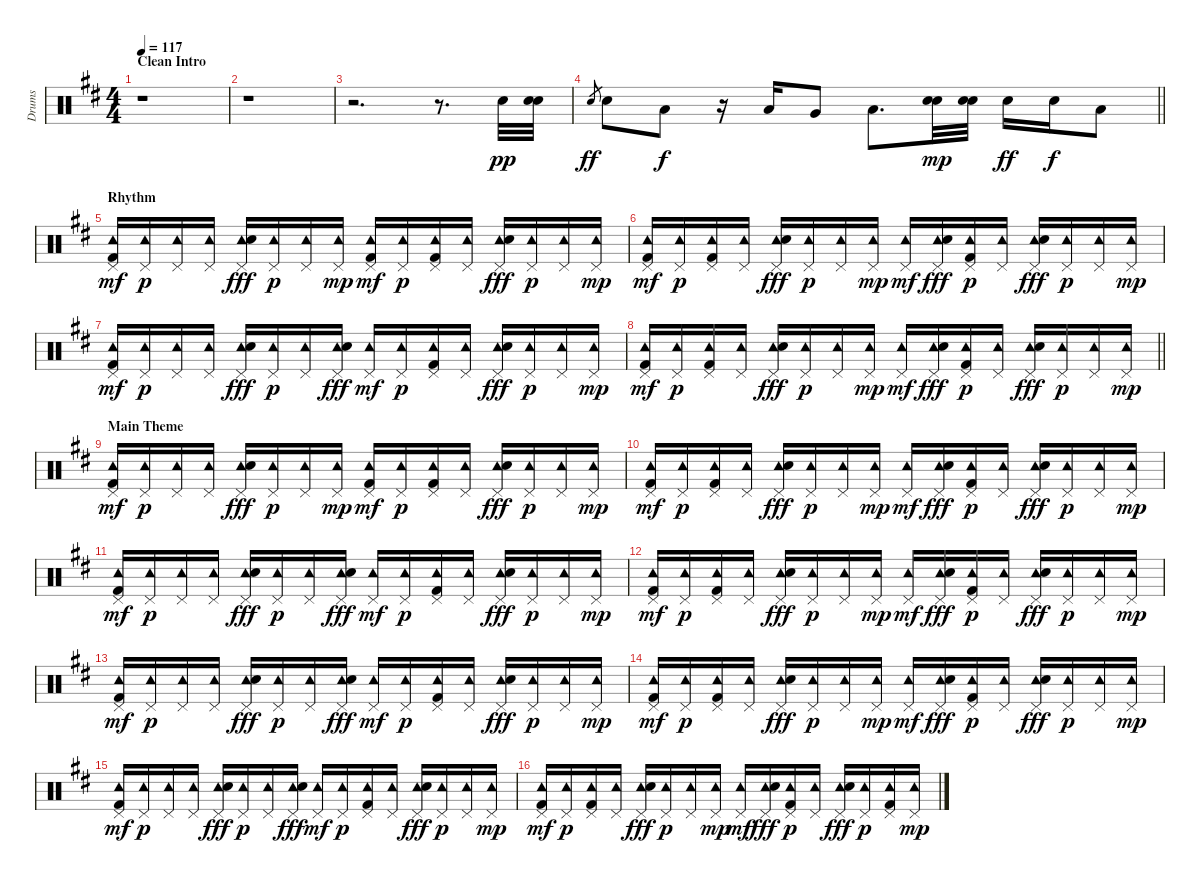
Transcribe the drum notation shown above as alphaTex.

\track ("Drums" "Drums") {instrument percussion}
\staff {score}
\articulation defaults
\ts (4 4)
\section ("" "Clean Intro")
\tempo 117
\clef neutral
\ks d
r.1{dy pp} |
r.1 |
r.2{d} r.8{d} "Snare (hit) 2".32 ("Snare (hit) 2" "Electric Snare (hit)").32 |
\barLineRight lightlight "Electric Snare (hit)".8{gr dy ff} "Electric Snare (hit)".8 "Low Tom (hit)".8{dy f}
r.16 "Low Tom (hit)".16 "Very Low Tom (hit)".8 "Low Floor Tom (hit)".8{d} ("Snare (hit) 2" "Snare (hit) 2").32{dy mp} ("Electric Snare (hit)" "Electric Snare (hit)").32 "Electric Snare (hit)".16{dy ff} "Electric Snare (hit)".16{dy f} "Low Floor Tom (hit)".8 |
\section ("" "Rhythm")
("Pedal Hi-Hat (hit)" "Tambourine (hit)" "Kick (hit) 2").16{dy mf} ("Pedal Hi-Hat (hit)" "Tambourine (hit)").16{dy p} ("Pedal Hi-Hat (hit)" "Tambourine (hit)").16 ("Pedal Hi-Hat (hit)" "Tambourine (hit)").16 ("Pedal Hi-Hat (hit)" "Tambourine (hit)" "Electric Snare (hit)").16{dy fff} ("Pedal Hi-Hat (hit)" "Tambourine (hit)").16{dy p} ("Pedal Hi-Hat (hit)" "Tambourine (hit)").16 ("Pedal Hi-Hat (hit)" "Tambourine (hit)").16{dy mp} ("Pedal Hi-Hat (hit)" "Tambourine (hit)" "Kick (hit) 2").16{dy mf} ("Pedal Hi-Hat (hit)" "Tambourine (hit)").16{dy p} ("Pedal Hi-Hat (hit)" "Tambourine (hit)" "Kick (hit) 2").16 ("Pedal Hi-Hat (hit)" "Tambourine (hit)").16 ("Pedal Hi-Hat (hit)" "Tambourine (hit)" "Electric Snare (hit)").16{dy fff} ("Pedal Hi-Hat (hit)" "Tambourine (hit)").16{dy p} ("Pedal Hi-Hat (hit)" "Tambourine (hit)").16 ("Pedal Hi-Hat (hit)" "Tambourine (hit)").16{dy mp} |
("Pedal Hi-Hat (hit)" "Tambourine (hit)" "Kick (hit) 2").16{dy mf} ("Pedal Hi-Hat (hit)" "Tambourine (hit)").16{dy p} ("Pedal Hi-Hat (hit)" "Tambourine (hit)" "Kick (hit) 2").16 ("Pedal Hi-Hat (hit)" "Tambourine (hit)").16 ("Pedal Hi-Hat (hit)" "Tambourine (hit)" "Electric Snare (hit)").16{dy fff} ("Pedal Hi-Hat (hit)" "Tambourine (hit)").16{dy p} ("Pedal Hi-Hat (hit)" "Tambourine (hit)").16 ("Pedal Hi-Hat (hit)" "Tambourine (hit)").16{dy mp} ("Pedal Hi-Hat (hit)" "Tambourine (hit)").16{dy mf} ("Pedal Hi-Hat (hit)" "Tambourine (hit)" "Electric Snare (hit)").16{dy fff} ("Pedal Hi-Hat (hit)" "Tambourine (hit)" "Kick (hit) 2").16{dy p} ("Pedal Hi-Hat (hit)" "Tambourine (hit)").16 ("Pedal Hi-Hat (hit)" "Tambourine (hit)" "Electric Snare (hit)").16{dy fff} ("Pedal Hi-Hat (hit)" "Tambourine (hit)").16{dy p} ("Pedal Hi-Hat (hit)" "Tambourine (hit)").16 ("Pedal Hi-Hat (hit)" "Tambourine (hit)").16{dy mp} |
("Pedal Hi-Hat (hit)" "Tambourine (hit)" "Kick (hit) 2").16{dy mf} ("Pedal Hi-Hat (hit)" "Tambourine (hit)").16{dy p} ("Pedal Hi-Hat (hit)" "Tambourine (hit)").16 ("Pedal Hi-Hat (hit)" "Tambourine (hit)").16 ("Pedal Hi-Hat (hit)" "Tambourine (hit)" "Electric Snare (hit)").16{dy fff} ("Pedal Hi-Hat (hit)" "Tambourine (hit)").16{dy p} ("Pedal Hi-Hat (hit)" "Tambourine (hit)").16 ("Pedal Hi-Hat (hit)" "Tambourine (hit)" "Electric Snare (hit)").16{dy fff} ("Pedal Hi-Hat (hit)" "Tambourine (hit)").16{dy mf} ("Pedal Hi-Hat (hit)" "Tambourine (hit)").16{dy p} ("Pedal Hi-Hat (hit)" "Tambourine (hit)" "Kick (hit) 2").16 ("Pedal Hi-Hat (hit)" "Tambourine (hit)").16 ("Pedal Hi-Hat (hit)" "Tambourine (hit)" "Electric Snare (hit)").16{dy fff} ("Pedal Hi-Hat (hit)" "Tambourine (hit)").16{dy p} ("Pedal Hi-Hat (hit)" "Tambourine (hit)").16 ("Pedal Hi-Hat (hit)" "Tambourine (hit)").16{dy mp} |
\barLineRight lightlight
("Pedal Hi-Hat (hit)" "Tambourine (hit)" "Kick (hit) 2").16{dy mf} ("Pedal Hi-Hat (hit)" "Tambourine (hit)").16{dy p} ("Pedal Hi-Hat (hit)" "Tambourine (hit)" "Kick (hit) 2").16 ("Pedal Hi-Hat (hit)" "Tambourine (hit)").16 ("Pedal Hi-Hat (hit)" "Tambourine (hit)" "Electric Snare (hit)").16{dy fff} ("Pedal Hi-Hat (hit)" "Tambourine (hit)").16{dy p} ("Pedal Hi-Hat (hit)" "Tambourine (hit)").16 ("Pedal Hi-Hat (hit)" "Tambourine (hit)").16{dy mp} ("Pedal Hi-Hat (hit)" "Tambourine (hit)").16{dy mf} ("Pedal Hi-Hat (hit)" "Tambourine (hit)" "Electric Snare (hit)").16{dy fff} ("Pedal Hi-Hat (hit)" "Tambourine (hit)" "Kick (hit) 2").16{dy p} ("Pedal Hi-Hat (hit)" "Tambourine (hit)").16 ("Pedal Hi-Hat (hit)" "Tambourine (hit)" "Electric Snare (hit)").16{dy fff} ("Pedal Hi-Hat (hit)" "Tambourine (hit)").16{dy p} ("Pedal Hi-Hat (hit)" "Tambourine (hit)").16 ("Pedal Hi-Hat (hit)" "Tambourine (hit)").16{dy mp} |
\section ("" "Main Theme")
("Pedal Hi-Hat (hit)" "Tambourine (hit)" "Kick (hit) 2").16{dy mf} ("Pedal Hi-Hat (hit)" "Tambourine (hit)").16{dy p} ("Pedal Hi-Hat (hit)" "Tambourine (hit)").16 ("Pedal Hi-Hat (hit)" "Tambourine (hit)").16 ("Pedal Hi-Hat (hit)" "Tambourine (hit)" "Electric Snare (hit)").16{dy fff} ("Pedal Hi-Hat (hit)" "Tambourine (hit)").16{dy p} ("Pedal Hi-Hat (hit)" "Tambourine (hit)").16 ("Pedal Hi-Hat (hit)" "Tambourine (hit)").16{dy mp} ("Pedal Hi-Hat (hit)" "Tambourine (hit)" "Kick (hit) 2").16{dy mf} ("Pedal Hi-Hat (hit)" "Tambourine (hit)").16{dy p} ("Pedal Hi-Hat (hit)" "Tambourine (hit)" "Kick (hit) 2").16 ("Pedal Hi-Hat (hit)" "Tambourine (hit)").16 ("Pedal Hi-Hat (hit)" "Tambourine (hit)" "Electric Snare (hit)").16{dy fff} ("Pedal Hi-Hat (hit)" "Tambourine (hit)").16{dy p} ("Pedal Hi-Hat (hit)" "Tambourine (hit)").16 ("Pedal Hi-Hat (hit)" "Tambourine (hit)").16{dy mp} |
("Pedal Hi-Hat (hit)" "Tambourine (hit)" "Kick (hit) 2").16{dy mf} ("Pedal Hi-Hat (hit)" "Tambourine (hit)").16{dy p} ("Pedal Hi-Hat (hit)" "Tambourine (hit)" "Kick (hit) 2").16 ("Pedal Hi-Hat (hit)" "Tambourine (hit)").16 ("Pedal Hi-Hat (hit)" "Tambourine (hit)" "Electric Snare (hit)").16{dy fff} ("Pedal Hi-Hat (hit)" "Tambourine (hit)").16{dy p} ("Pedal Hi-Hat (hit)" "Tambourine (hit)").16 ("Pedal Hi-Hat (hit)" "Tambourine (hit)").16{dy mp} ("Pedal Hi-Hat (hit)" "Tambourine (hit)").16{dy mf} ("Pedal Hi-Hat (hit)" "Tambourine (hit)" "Electric Snare (hit)").16{dy fff} ("Pedal Hi-Hat (hit)" "Tambourine (hit)" "Kick (hit) 2").16{dy p} ("Pedal Hi-Hat (hit)" "Tambourine (hit)").16 ("Pedal Hi-Hat (hit)" "Tambourine (hit)" "Electric Snare (hit)").16{dy fff} ("Pedal Hi-Hat (hit)" "Tambourine (hit)").16{dy p} ("Pedal Hi-Hat (hit)" "Tambourine (hit)").16 ("Pedal Hi-Hat (hit)" "Tambourine (hit)").16{dy mp} |
("Pedal Hi-Hat (hit)" "Tambourine (hit)" "Kick (hit) 2").16{dy mf} ("Pedal Hi-Hat (hit)" "Tambourine (hit)").16{dy p} ("Pedal Hi-Hat (hit)" "Tambourine (hit)").16 ("Pedal Hi-Hat (hit)" "Tambourine (hit)").16 ("Pedal Hi-Hat (hit)" "Tambourine (hit)" "Electric Snare (hit)").16{dy fff} ("Pedal Hi-Hat (hit)" "Tambourine (hit)").16{dy p} ("Pedal Hi-Hat (hit)" "Tambourine (hit)").16 ("Pedal Hi-Hat (hit)" "Tambourine (hit)" "Electric Snare (hit)").16{dy fff} ("Pedal Hi-Hat (hit)" "Tambourine (hit)").16{dy mf} ("Pedal Hi-Hat (hit)" "Tambourine (hit)").16{dy p} ("Pedal Hi-Hat (hit)" "Tambourine (hit)" "Kick (hit) 2").16 ("Pedal Hi-Hat (hit)" "Tambourine (hit)").16 ("Pedal Hi-Hat (hit)" "Tambourine (hit)" "Electric Snare (hit)").16{dy fff} ("Pedal Hi-Hat (hit)" "Tambourine (hit)").16{dy p} ("Pedal Hi-Hat (hit)" "Tambourine (hit)").16 ("Pedal Hi-Hat (hit)" "Tambourine (hit)").16{dy mp} |
("Pedal Hi-Hat (hit)" "Tambourine (hit)" "Kick (hit) 2").16{dy mf} ("Pedal Hi-Hat (hit)" "Tambourine (hit)").16{dy p} ("Pedal Hi-Hat (hit)" "Tambourine (hit)" "Kick (hit) 2").16 ("Pedal Hi-Hat (hit)" "Tambourine (hit)").16 ("Pedal Hi-Hat (hit)" "Tambourine (hit)" "Electric Snare (hit)").16{dy fff} ("Pedal Hi-Hat (hit)" "Tambourine (hit)").16{dy p} ("Pedal Hi-Hat (hit)" "Tambourine (hit)").16 ("Pedal Hi-Hat (hit)" "Tambourine (hit)").16{dy mp} ("Pedal Hi-Hat (hit)" "Tambourine (hit)").16{dy mf} ("Pedal Hi-Hat (hit)" "Tambourine (hit)" "Electric Snare (hit)").16{dy fff} ("Pedal Hi-Hat (hit)" "Tambourine (hit)" "Kick (hit) 2").16{dy p} ("Pedal Hi-Hat (hit)" "Tambourine (hit)").16 ("Pedal Hi-Hat (hit)" "Tambourine (hit)" "Electric Snare (hit)").16{dy fff} ("Pedal Hi-Hat (hit)" "Tambourine (hit)").16{dy p} ("Pedal Hi-Hat (hit)" "Tambourine (hit)").16 ("Pedal Hi-Hat (hit)" "Tambourine (hit)").16{dy mp} |
("Pedal Hi-Hat (hit)" "Tambourine (hit)" "Kick (hit) 2").16{dy mf} ("Pedal Hi-Hat (hit)" "Tambourine (hit)").16{dy p} ("Pedal Hi-Hat (hit)" "Tambourine (hit)").16 ("Pedal Hi-Hat (hit)" "Tambourine (hit)").16 ("Pedal Hi-Hat (hit)" "Tambourine (hit)" "Electric Snare (hit)").16{dy fff} ("Pedal Hi-Hat (hit)" "Tambourine (hit)").16{dy p} ("Pedal Hi-Hat (hit)" "Tambourine (hit)").16 ("Pedal Hi-Hat (hit)" "Tambourine (hit)" "Electric Snare (hit)").16{dy fff} ("Pedal Hi-Hat (hit)" "Tambourine (hit)").16{dy mf} ("Pedal Hi-Hat (hit)" "Tambourine (hit)").16{dy p} ("Pedal Hi-Hat (hit)" "Tambourine (hit)" "Kick (hit) 2").16 ("Pedal Hi-Hat (hit)" "Tambourine (hit)").16 ("Pedal Hi-Hat (hit)" "Tambourine (hit)" "Electric Snare (hit)").16{dy fff} ("Pedal Hi-Hat (hit)" "Tambourine (hit)").16{dy p} ("Pedal Hi-Hat (hit)" "Tambourine (hit)").16 ("Pedal Hi-Hat (hit)" "Tambourine (hit)").16{dy mp} |
("Pedal Hi-Hat (hit)" "Tambourine (hit)" "Kick (hit) 2").16{dy mf} ("Pedal Hi-Hat (hit)" "Tambourine (hit)").16{dy p} ("Pedal Hi-Hat (hit)" "Tambourine (hit)" "Kick (hit) 2").16 ("Pedal Hi-Hat (hit)" "Tambourine (hit)").16 ("Pedal Hi-Hat (hit)" "Tambourine (hit)" "Electric Snare (hit)").16{dy fff} ("Pedal Hi-Hat (hit)" "Tambourine (hit)").16{dy p} ("Pedal Hi-Hat (hit)" "Tambourine (hit)").16 ("Pedal Hi-Hat (hit)" "Tambourine (hit)").16{dy mp} ("Pedal Hi-Hat (hit)" "Tambourine (hit)").16{dy mf} ("Pedal Hi-Hat (hit)" "Tambourine (hit)" "Electric Snare (hit)").16{dy fff} ("Pedal Hi-Hat (hit)" "Tambourine (hit)" "Kick (hit) 2").16{dy p} ("Pedal Hi-Hat (hit)" "Tambourine (hit)").16 ("Pedal Hi-Hat (hit)" "Tambourine (hit)" "Electric Snare (hit)").16{dy fff} ("Pedal Hi-Hat (hit)" "Tambourine (hit)").16{dy p} ("Pedal Hi-Hat (hit)" "Tambourine (hit)").16 ("Pedal Hi-Hat (hit)" "Tambourine (hit)").16{dy mp} |
("Pedal Hi-Hat (hit)" "Tambourine (hit)" "Kick (hit) 2").16{dy mf} ("Pedal Hi-Hat (hit)" "Tambourine (hit)").16{dy p} ("Pedal Hi-Hat (hit)" "Tambourine (hit)").16 ("Pedal Hi-Hat (hit)" "Tambourine (hit)").16 ("Pedal Hi-Hat (hit)" "Tambourine (hit)" "Electric Snare (hit)").16{dy fff} ("Pedal Hi-Hat (hit)" "Tambourine (hit)").16{dy p} ("Pedal Hi-Hat (hit)" "Tambourine (hit)").16 ("Pedal Hi-Hat (hit)" "Tambourine (hit)" "Electric Snare (hit)").16{dy fff} ("Pedal Hi-Hat (hit)" "Tambourine (hit)").16{dy mf} ("Pedal Hi-Hat (hit)" "Tambourine (hit)").16{dy p} ("Pedal Hi-Hat (hit)" "Tambourine (hit)" "Kick (hit) 2").16 ("Pedal Hi-Hat (hit)" "Tambourine (hit)").16 ("Pedal Hi-Hat (hit)" "Tambourine (hit)" "Electric Snare (hit)").16{dy fff} ("Pedal Hi-Hat (hit)" "Tambourine (hit)").16{dy p} ("Pedal Hi-Hat (hit)" "Tambourine (hit)").16 ("Pedal Hi-Hat (hit)" "Tambourine (hit)").16{dy mp} |
("Pedal Hi-Hat (hit)" "Tambourine (hit)" "Kick (hit) 2").16{dy mf} ("Pedal Hi-Hat (hit)" "Tambourine (hit)").16{dy p} ("Pedal Hi-Hat (hit)" "Tambourine (hit)" "Kick (hit) 2").16 ("Pedal Hi-Hat (hit)" "Tambourine (hit)").16 ("Pedal Hi-Hat (hit)" "Tambourine (hit)" "Electric Snare (hit)").16{dy fff} ("Pedal Hi-Hat (hit)" "Tambourine (hit)").16{dy p} ("Pedal Hi-Hat (hit)" "Tambourine (hit)").16 ("Pedal Hi-Hat (hit)" "Tambourine (hit)").16{dy mp} ("Pedal Hi-Hat (hit)" "Tambourine (hit)").16{dy mf} ("Pedal Hi-Hat (hit)" "Tambourine (hit)" "Electric Snare (hit)").16{dy fff} ("Pedal Hi-Hat (hit)" "Tambourine (hit)" "Kick (hit) 2").16{dy p} ("Pedal Hi-Hat (hit)" "Tambourine (hit)").16 ("Pedal Hi-Hat (hit)" "Tambourine (hit)" "Electric Snare (hit)").16{dy fff} ("Pedal Hi-Hat (hit)" "Tambourine (hit)").16{dy p} ("Pedal Hi-Hat (hit)" "Tambourine (hit)" "Kick (hit) 2").16 ("Pedal Hi-Hat (hit)" "Tambourine (hit)").16{dy mp}
